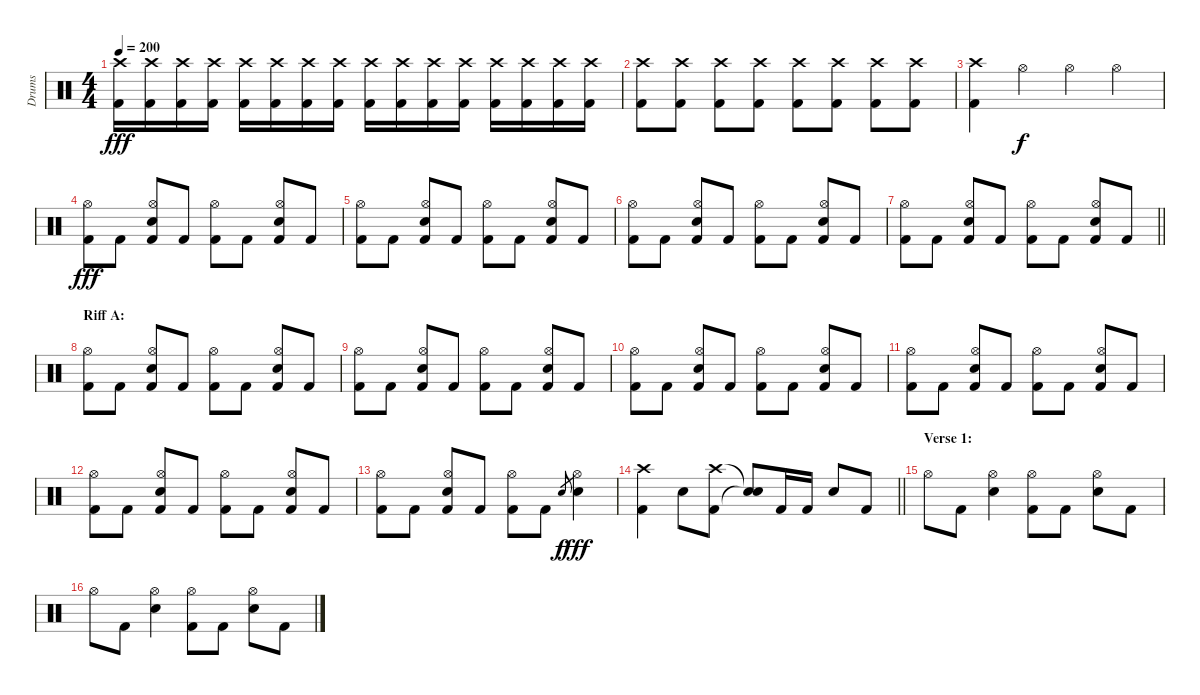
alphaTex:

\track ("Drums" "Drums") {instrument percussion}
\staff {score}
\articulation defaults
\ts (4 4)
\tempo 200
\clef neutral
\ks c
("Crash high (hit)" "Kick (hit) 2").16{dy fff} ("Crash high (hit)" "Kick (hit) 2").16 ("Crash high (hit)" "Kick (hit) 2").16 ("Crash high (hit)" "Kick (hit) 2").16 ("Crash high (hit)" "Kick (hit) 2").16 ("Crash high (hit)" "Kick (hit) 2").16 ("Crash high (hit)" "Kick (hit) 2").16 ("Crash high (hit)" "Kick (hit) 2").16 ("Crash high (hit)" "Kick (hit) 2").16 ("Crash high (hit)" "Kick (hit) 2").16 ("Crash high (hit)" "Kick (hit) 2").16 ("Crash high (hit)" "Kick (hit) 2").16 ("Crash high (hit)" "Kick (hit) 2").16 ("Crash high (hit)" "Kick (hit) 2").16 ("Crash high (hit)" "Kick (hit) 2").16 ("Crash high (hit)" "Kick (hit) 2").16 |
("Crash high (hit)" "Kick (hit) 2").8 ("Crash high (hit)" "Kick (hit) 2").8 ("Crash high (hit)" "Kick (hit) 2").8 ("Crash high (hit)" "Kick (hit) 2").8 ("Crash high (hit)" "Kick (hit) 2").8 ("Crash high (hit)" "Kick (hit) 2").8 ("Crash high (hit)" "Kick (hit) 2").8 ("Crash high (hit)" "Kick (hit) 2").8 |
("Crash high (hit)" "Kick (hit) 2").4 "Hi-Hat (open)".4{dy f} "Hi-Hat (open)".4 "Hi-Hat (open)".4 |
("Hi-Hat (open)" "Kick (hit) 2").8{dy fff} "Kick (hit) 2".8 ("Hi-Hat (open)" "Electric Snare (hit)" "Kick (hit) 2").8 "Kick (hit) 2".8 ("Hi-Hat (open)" "Kick (hit) 2").8 "Kick (hit) 2".8 ("Hi-Hat (open)" "Electric Snare (hit)" "Kick (hit) 2").8 "Kick (hit) 2".8 |
("Hi-Hat (open)" "Kick (hit) 2").8 "Kick (hit) 2".8 ("Hi-Hat (open)" "Electric Snare (hit)" "Kick (hit) 2").8 "Kick (hit) 2".8 ("Hi-Hat (open)" "Kick (hit) 2").8 "Kick (hit) 2".8 ("Hi-Hat (open)" "Electric Snare (hit)" "Kick (hit) 2").8 "Kick (hit) 2".8 |
("Hi-Hat (open)" "Kick (hit) 2").8 "Kick (hit) 2".8 ("Hi-Hat (open)" "Electric Snare (hit)" "Kick (hit) 2").8 "Kick (hit) 2".8 ("Hi-Hat (open)" "Kick (hit) 2").8 "Kick (hit) 2".8 ("Hi-Hat (open)" "Electric Snare (hit)" "Kick (hit) 2").8 "Kick (hit) 2".8 |
\barLineRight lightlight
("Hi-Hat (open)" "Kick (hit) 2").8 "Kick (hit) 2".8 ("Hi-Hat (open)" "Electric Snare (hit)" "Kick (hit) 2").8 "Kick (hit) 2".8 ("Hi-Hat (open)" "Kick (hit) 2").8 "Kick (hit) 2".8 ("Hi-Hat (open)" "Electric Snare (hit)" "Kick (hit) 2").8 "Kick (hit) 2".8 |
\section ("" "Riff A:")
("Hi-Hat (open)" "Kick (hit) 2").8 "Kick (hit) 2".8 ("Hi-Hat (open)" "Electric Snare (hit)" "Kick (hit) 2").8 "Kick (hit) 2".8 ("Hi-Hat (open)" "Kick (hit) 2").8 "Kick (hit) 2".8 ("Hi-Hat (open)" "Electric Snare (hit)" "Kick (hit) 2").8 "Kick (hit) 2".8 |
("Hi-Hat (open)" "Kick (hit) 2").8 "Kick (hit) 2".8 ("Hi-Hat (open)" "Electric Snare (hit)" "Kick (hit) 2").8 "Kick (hit) 2".8 ("Hi-Hat (open)" "Kick (hit) 2").8 "Kick (hit) 2".8 ("Hi-Hat (open)" "Electric Snare (hit)" "Kick (hit) 2").8 "Kick (hit) 2".8 |
("Hi-Hat (open)" "Kick (hit) 2").8 "Kick (hit) 2".8 ("Hi-Hat (open)" "Electric Snare (hit)" "Kick (hit) 2").8 "Kick (hit) 2".8 ("Hi-Hat (open)" "Kick (hit) 2").8 "Kick (hit) 2".8 ("Hi-Hat (open)" "Electric Snare (hit)" "Kick (hit) 2").8 "Kick (hit) 2".8 |
("Hi-Hat (open)" "Kick (hit) 2").8 "Kick (hit) 2".8 ("Hi-Hat (open)" "Electric Snare (hit)" "Kick (hit) 2").8 "Kick (hit) 2".8 ("Hi-Hat (open)" "Kick (hit) 2").8 "Kick (hit) 2".8 ("Hi-Hat (open)" "Electric Snare (hit)" "Kick (hit) 2").8 "Kick (hit) 2".8 |
("Hi-Hat (open)" "Kick (hit) 2").8 "Kick (hit) 2".8 ("Hi-Hat (open)" "Electric Snare (hit)" "Kick (hit) 2").8 "Kick (hit) 2".8 ("Hi-Hat (open)" "Kick (hit) 2").8 "Kick (hit) 2".8 ("Hi-Hat (open)" "Electric Snare (hit)" "Kick (hit) 2").8 "Kick (hit) 2".8 |
("Hi-Hat (open)" "Kick (hit) 2").8 "Kick (hit) 2".8 ("Hi-Hat (open)" "Electric Snare (hit)" "Kick (hit) 2").8 "Kick (hit) 2".8 ("Hi-Hat (open)" "Kick (hit) 2").8 "Kick (hit) 2".8 "Electric Snare (hit)".8{gr dy f} ("Hi-Hat (open)" "Electric Snare (hit)").4{dy fff} |
\barLineRight lightlight
("Crash high (hit)" "Kick (hit) 2").4 "Electric Snare (hit)".8 ("Crash high (hit)" "Kick (hit) 2").8 ("Snare (hit)"{t} "Snare (hit)"{t}).8 "Kick (hit) 2".16 "Kick (hit) 2".16 "Electric Snare (hit)".8 "Kick (hit) 2".8 |
\section ("" "Verse 1:")
"Hi-Hat (open)".8 "Kick (hit) 2".8 ("Hi-Hat (open)" "Electric Snare (hit)").4 ("Hi-Hat (open)" "Kick (hit) 2").8 "Kick (hit) 2".8 ("Hi-Hat (open)" "Electric Snare (hit)").8 "Kick (hit) 2".8 |
"Hi-Hat (open)".8 "Kick (hit) 2".8 ("Hi-Hat (open)" "Electric Snare (hit)").4 ("Hi-Hat (open)" "Kick (hit) 2").8 "Kick (hit) 2".8 ("Hi-Hat (open)" "Electric Snare (hit)").8 "Kick (hit) 2".8
